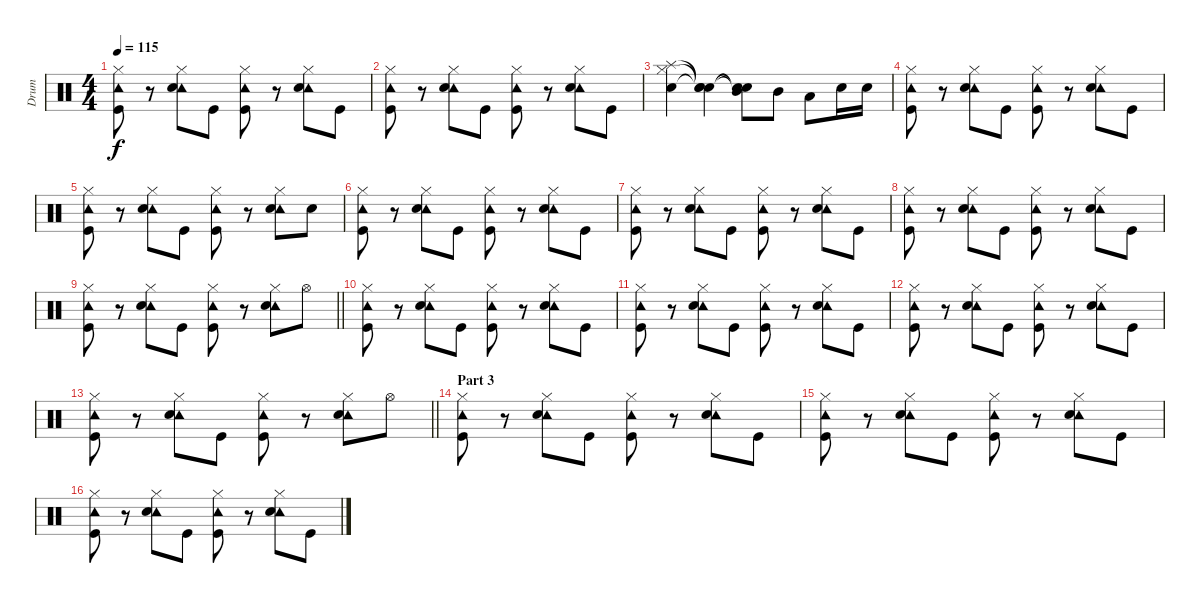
\track ("Drum" "Drum") {instrument percussion}
\staff {score}
\articulation defaults
\ts (4 4)
\tempo 115
\clef neutral
\ks c
("Hi-Hat (closed)" "Tambourine (hit)" "Kick (hit)").8{dy f} r.8 ("Hi-Hat (closed)" "Tambourine (hit)" "Snare (hit) 2").8 "Kick (hit)".8 ("Hi-Hat (closed)" "Tambourine (hit)" "Kick (hit)").8 r.8 ("Hi-Hat (closed)" "Tambourine (hit)" "Snare (hit) 2").8 "Kick (hit)".8 |
("Hi-Hat (closed)" "Tambourine (hit)" "Kick (hit)").8 r.8 ("Hi-Hat (closed)" "Tambourine (hit)" "Snare (hit) 2").8 "Kick (hit)".8 ("Hi-Hat (closed)" "Tambourine (hit)" "Kick (hit)").8 r.8 ("Hi-Hat (closed)" "Tambourine (hit)" "Snare (hit) 2").8 "Kick (hit)".8 |
("Hi-Hat (closed)" "Splash (hit)" "Snare (hit) 2").4 ("Snare (hit)"{t} "Snare (hit)"{t} "Snare (hit)"{t}).4 ("Mid Tom (hit)"{t} "Snare (hit)"{t} "Snare (hit)"{t}).8 "Mid Tom (hit)".8 "Low Tom (hit)".8 "Snare (hit) 2".16 "Snare (hit) 2".16 |
("Hi-Hat (closed)" "Tambourine (hit)" "Kick (hit)").8 r.8 ("Hi-Hat (closed)" "Tambourine (hit)" "Snare (hit) 2").8 "Kick (hit)".8 ("Hi-Hat (closed)" "Tambourine (hit)" "Kick (hit)").8 r.8 ("Hi-Hat (closed)" "Tambourine (hit)" "Snare (hit) 2").8 "Kick (hit)".8 |
("Hi-Hat (closed)" "Tambourine (hit)" "Kick (hit)").8 r.8 ("Hi-Hat (closed)" "Tambourine (hit)" "Snare (hit) 2").8 "Kick (hit)".8 ("Hi-Hat (closed)" "Tambourine (hit)" "Kick (hit)").8 r.8 ("Hi-Hat (closed)" "Tambourine (hit)" "Snare (hit) 2").8 "Snare (hit) 2".8 |
("Hi-Hat (closed)" "Tambourine (hit)" "Kick (hit)").8 r.8 ("Hi-Hat (closed)" "Tambourine (hit)" "Snare (hit) 2").8 "Kick (hit)".8 ("Hi-Hat (closed)" "Tambourine (hit)" "Kick (hit)").8 r.8 ("Hi-Hat (closed)" "Tambourine (hit)" "Snare (hit) 2").8 "Kick (hit)".8 |
("Hi-Hat (closed)" "Tambourine (hit)" "Kick (hit)").8 r.8 ("Hi-Hat (closed)" "Tambourine (hit)" "Snare (hit) 2").8 "Kick (hit)".8 ("Hi-Hat (closed)" "Tambourine (hit)" "Kick (hit)").8 r.8 ("Hi-Hat (closed)" "Tambourine (hit)" "Snare (hit) 2").8 "Kick (hit)".8 |
("Hi-Hat (closed)" "Tambourine (hit)" "Kick (hit)").8 r.8 ("Hi-Hat (closed)" "Tambourine (hit)" "Snare (hit) 2").8 "Kick (hit)".8 ("Hi-Hat (closed)" "Tambourine (hit)" "Kick (hit)").8 r.8 ("Hi-Hat (closed)" "Tambourine (hit)" "Snare (hit) 2").8 "Kick (hit)".8 |
\barLineRight lightlight
("Hi-Hat (closed)" "Tambourine (hit)" "Kick (hit)").8 r.8 ("Hi-Hat (closed)" "Tambourine (hit)" "Snare (hit) 2").8 "Kick (hit)".8 ("Hi-Hat (closed)" "Tambourine (hit)" "Kick (hit)").8 r.8 ("Hi-Hat (closed)" "Tambourine (hit)" "Snare (hit) 2").8 "Hi-Hat (open)".8 |
("Hi-Hat (closed)" "Tambourine (hit)" "Kick (hit)").8 r.8 ("Hi-Hat (closed)" "Tambourine (hit)" "Snare (hit) 2").8 "Kick (hit)".8 ("Hi-Hat (closed)" "Tambourine (hit)" "Kick (hit)").8 r.8 ("Hi-Hat (closed)" "Tambourine (hit)" "Snare (hit) 2").8 "Kick (hit)".8 |
("Hi-Hat (closed)" "Tambourine (hit)" "Kick (hit)").8 r.8 ("Hi-Hat (closed)" "Tambourine (hit)" "Snare (hit) 2").8 "Kick (hit)".8 ("Hi-Hat (closed)" "Tambourine (hit)" "Kick (hit)").8 r.8 ("Hi-Hat (closed)" "Tambourine (hit)" "Snare (hit) 2").8 "Kick (hit)".8 |
("Hi-Hat (closed)" "Tambourine (hit)" "Kick (hit)").8 r.8 ("Hi-Hat (closed)" "Tambourine (hit)" "Snare (hit) 2").8 "Kick (hit)".8 ("Hi-Hat (closed)" "Tambourine (hit)" "Kick (hit)").8 r.8 ("Hi-Hat (closed)" "Tambourine (hit)" "Snare (hit) 2").8 "Kick (hit)".8 |
\barLineRight lightlight
("Hi-Hat (closed)" "Tambourine (hit)" "Kick (hit)").8 r.8 ("Hi-Hat (closed)" "Tambourine (hit)" "Snare (hit) 2").8 "Kick (hit)".8 ("Hi-Hat (closed)" "Tambourine (hit)" "Kick (hit)").8 r.8 ("Hi-Hat (closed)" "Tambourine (hit)" "Snare (hit) 2").8 "Hi-Hat (open)".8 |
\section ("" "Part 3")
("Hi-Hat (closed)" "Tambourine (hit)" "Kick (hit)").8 r.8 ("Hi-Hat (closed)" "Tambourine (hit)" "Snare (hit) 2").8 "Kick (hit)".8 ("Hi-Hat (closed)" "Tambourine (hit)" "Kick (hit)").8 r.8 ("Hi-Hat (closed)" "Tambourine (hit)" "Snare (hit) 2").8 "Kick (hit)".8 |
("Hi-Hat (closed)" "Tambourine (hit)" "Kick (hit)").8 r.8 ("Hi-Hat (closed)" "Tambourine (hit)" "Snare (hit) 2").8 "Kick (hit)".8 ("Hi-Hat (closed)" "Tambourine (hit)" "Kick (hit)").8 r.8 ("Hi-Hat (closed)" "Tambourine (hit)" "Snare (hit) 2").8 "Kick (hit)".8 |
("Hi-Hat (closed)" "Tambourine (hit)" "Kick (hit)").8 r.8 ("Hi-Hat (closed)" "Tambourine (hit)" "Snare (hit) 2").8 "Kick (hit)".8 ("Hi-Hat (closed)" "Tambourine (hit)" "Kick (hit)").8 r.8 ("Hi-Hat (closed)" "Tambourine (hit)" "Snare (hit) 2").8 "Kick (hit)".8
